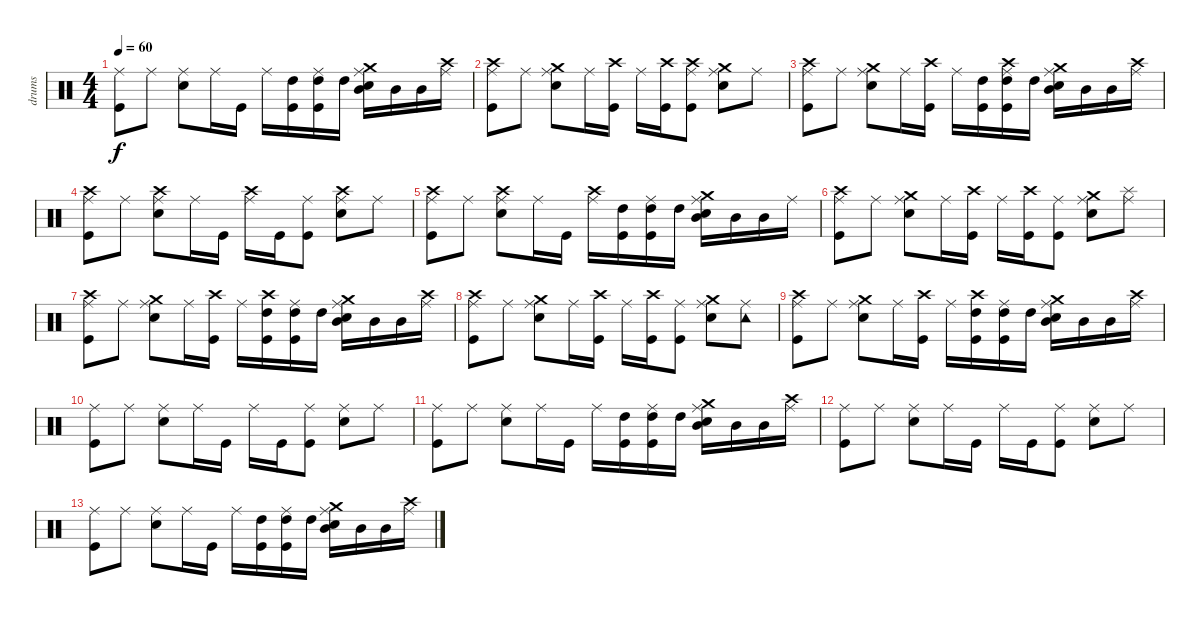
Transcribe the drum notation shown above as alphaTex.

\track ("drums" "drums") {instrument percussion}
\staff {score}
\articulation defaults
\ts (4 4)
\tempo 60
\clef neutral
\ks c
("Ride (middle)" "Kick (hit)").8{dy f} "Ride (middle)".8 ("Ride (middle)" "Snare (hit) 2").8 "Ride (middle)".16 "Kick (hit)".16 "Ride (middle)".16 ("Kick (hit)" "High Tom (hit)").16 ("Ride (middle)" "Kick (hit)" "High Tom (hit)").16 "High Tom (hit)".16 ("Ride (middle)" "Crash medium (hit)" "Snare (hit) 2" "Mid Tom (hit)").16 "Mid Tom (hit)".16 "Mid Tom (hit)".16 ("Ride (middle)" "Crash high (hit)").16 |
("Ride (middle)" "Crash high (hit)" "Kick (hit)").8 "Ride (middle)".8 ("Ride (middle)" "Crash medium (hit)" "Snare (hit) 2").8 "Ride (middle)".16 ("Crash high (hit)" "Kick (hit)").16 "Ride (middle)".16 ("Crash high (hit)" "Kick (hit)").16 ("Ride (middle)" "Crash high (hit)" "Kick (hit)").8 ("Ride (middle)" "Crash medium (hit)" "Snare (hit) 2").8 "Ride (middle)".8 |
("Ride (middle)" "Crash high (hit)" "Kick (hit)").8 "Ride (middle)".8 ("Ride (middle)" "Crash medium (hit)" "Snare (hit) 2").8 "Ride (middle)".16 ("Crash high (hit)" "Kick (hit)").16 "Ride (middle)".16 ("Kick (hit)" "High Tom (hit)").16 ("Ride (middle)" "Crash high (hit)" "Kick (hit)" "High Tom (hit)").16 "High Tom (hit)".16 ("Ride (middle)" "Crash medium (hit)" "Snare (hit) 2" "Mid Tom (hit)").16 "Mid Tom (hit)".16 "Mid Tom (hit)".16 ("Ride (middle)" "Crash high (hit)").16 |
("Ride (middle)" "Crash high (hit)" "Kick (hit)").8 "Ride (middle)".8 ("Ride (middle)" "Crash high (hit)" "Snare (hit) 2").8 "Ride (middle)".16 "Kick (hit)".16 ("Ride (middle)" "Crash high (hit)").16 "Kick (hit)".16 ("Ride (middle)" "Kick (hit)").8 ("Ride (middle)" "Crash high (hit)" "Snare (hit) 2").8 "Ride (middle)".8 |
("Ride (middle)" "Crash high (hit)" "Kick (hit)").8 "Ride (middle)".8 ("Ride (middle)" "Crash high (hit)" "Snare (hit) 2").8 "Ride (middle)".16 "Kick (hit)".16 ("Ride (middle)" "Crash high (hit)").16 ("Kick (hit)" "High Tom (hit)").16 ("Ride (middle)" "Kick (hit)" "High Tom (hit)").16 "High Tom (hit)".16 ("Ride (middle)" "Crash medium (hit)" "Snare (hit) 2" "Mid Tom (hit)").16 "Mid Tom (hit)".16 "Mid Tom (hit)".16 "Ride (middle)".16 |
("Ride (middle)" "Crash high (hit)" "Kick (hit)").8 "Ride (middle)".8 ("Ride (middle)" "Crash medium (hit)" "Snare (hit) 2").8 "Ride (middle)".16 ("Crash high (hit)" "Kick (hit)").16 "Ride (middle)".16 ("Crash high (hit)" "Kick (hit)").16 ("Ride (middle)" "Kick (hit)").8 ("Ride (middle)" "Crash medium (hit)" "Snare (hit) 2").8 ("Ride (middle)" "Splash (hit)").8 |
("Ride (middle)" "Crash high (hit)" "Kick (hit)").8 "Ride (middle)".8 ("Ride (middle)" "Crash medium (hit)" "Snare (hit) 2").8 "Ride (middle)".16 ("Crash high (hit)" "Kick (hit)").16 "Ride (middle)".16 ("Crash high (hit)" "Kick (hit)" "High Tom (hit)").16 ("Ride (middle)" "Kick (hit)" "High Tom (hit)").16 "High Tom (hit)".16 ("Ride (middle)" "Crash medium (hit)" "Snare (hit) 2" "Mid Tom (hit)").16 "Mid Tom (hit)".16 "Mid Tom (hit)".16 ("Ride (middle)" "Crash high (hit)").16 |
("Ride (middle)" "Crash high (hit)" "Kick (hit)").8 "Ride (middle)".8 ("Ride (middle)" "Crash medium (hit)" "Snare (hit) 2").8 "Ride (middle)".16 ("Crash high (hit)" "Kick (hit)").16 "Ride (middle)".16 ("Crash high (hit)" "Kick (hit)").16 ("Ride (middle)" "Kick (hit)").8 ("Ride (middle)" "Crash medium (hit)" "Snare (hit) 2").8 ("Ride (middle)" "Tambourine (hit)").8 |
("Ride (middle)" "Crash high (hit)" "Kick (hit)").8 "Ride (middle)".8 ("Ride (middle)" "Crash medium (hit)" "Snare (hit) 2").8 "Ride (middle)".16 ("Crash high (hit)" "Kick (hit)").16 "Ride (middle)".16 ("Crash high (hit)" "Kick (hit)" "High Tom (hit)").16 ("Ride (middle)" "Kick (hit)" "High Tom (hit)").16 "High Tom (hit)".16 ("Ride (middle)" "Crash medium (hit)" "Snare (hit) 2" "Mid Tom (hit)").16 "Mid Tom (hit)".16 "Mid Tom (hit)".16 ("Ride (middle)" "Crash high (hit)").16 |
("Ride (middle)" "Kick (hit)").8 "Ride (middle)".8 ("Ride (middle)" "Snare (hit) 2").8 "Ride (middle)".16 "Kick (hit)".16 "Ride (middle)".16 "Kick (hit)".16 ("Ride (middle)" "Kick (hit)").8 ("Ride (middle)" "Snare (hit) 2").8 "Ride (middle)".8 |
("Ride (middle)" "Kick (hit)").8 "Ride (middle)".8 ("Ride (middle)" "Snare (hit) 2").8 "Ride (middle)".16 "Kick (hit)".16 "Ride (middle)".16 ("Kick (hit)" "High Tom (hit)").16 ("Ride (middle)" "Kick (hit)" "High Tom (hit)").16 "High Tom (hit)".16 ("Ride (middle)" "Crash medium (hit)" "Snare (hit) 2" "Mid Tom (hit)").16 "Mid Tom (hit)".16 "Mid Tom (hit)".16 ("Ride (middle)" "Crash high (hit)").16 |
("Ride (middle)" "Kick (hit)").8 "Ride (middle)".8 ("Ride (middle)" "Snare (hit) 2").8 "Ride (middle)".16 "Kick (hit)".16 "Ride (middle)".16 "Kick (hit)".16 ("Ride (middle)" "Kick (hit)").8 ("Ride (middle)" "Snare (hit) 2").8 "Ride (middle)".8 |
("Ride (middle)" "Kick (hit)").8 "Ride (middle)".8 ("Ride (middle)" "Snare (hit) 2").8 "Ride (middle)".16 "Kick (hit)".16 "Ride (middle)".16 ("Kick (hit)" "High Tom (hit)").16 ("Ride (middle)" "Kick (hit)" "High Tom (hit)").16 "High Tom (hit)".16 ("Ride (middle)" "Crash medium (hit)" "Snare (hit) 2" "Mid Tom (hit)").16 "Mid Tom (hit)".16 "Mid Tom (hit)".16 ("Ride (middle)" "Crash high (hit)").16
